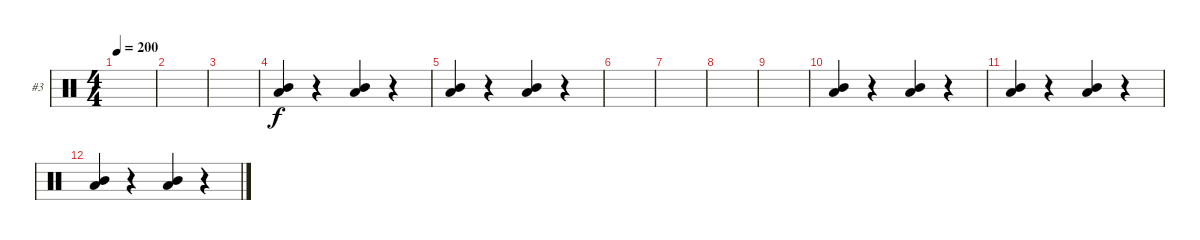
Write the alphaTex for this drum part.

\bracketExtendMode groupsimilarinstruments
\firstSystemTrackNameOrientation horizontal
\otherSystemsTrackNameOrientation horizontal
\track ("Chris Fehn" "#3") {instrument percussion}
\staff {score}
\articulation defaults
\ts (4 4)
\tempo 200
\clef neutral
\ks c
|
|
|
("Low Tom (hit)" "Mid Tom (hit)").4 r.4 ("Low Tom (hit)" "Mid Tom (hit)").4 r.4 |
("Low Tom (hit)" "Mid Tom (hit)").4 r.4 ("Low Tom (hit)" "Mid Tom (hit)").4 r.4 |
|
|
|
|
("Low Tom (hit)" "Mid Tom (hit)").4 r.4 ("Low Tom (hit)" "Mid Tom (hit)").4 r.4 |
("Low Tom (hit)" "Mid Tom (hit)").4 r.4 ("Low Tom (hit)" "Mid Tom (hit)").4 r.4 |
("Low Tom (hit)" "Mid Tom (hit)").4 r.4 ("Low Tom (hit)" "Mid Tom (hit)").4 r.4
